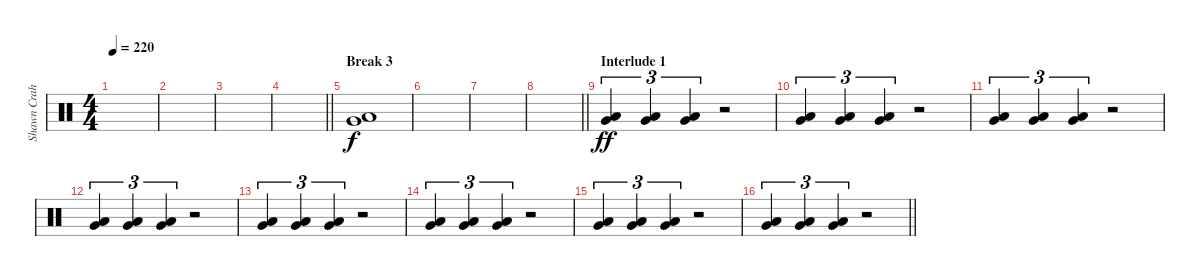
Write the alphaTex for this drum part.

\track ("Shawn Crahan" "Shawn Crah") {instrument percussion}
\staff {score}
\articulation defaults
\ts (4 4)
\tempo 220
\clef neutral
\ks c
|
|
|
\barLineRight lightlight
|
\section ("" "Break 3")
("Very Low Tom (hit)" "Low Floor Tom (hit)").1 |
|
|
\barLineRight lightlight
|
\section ("" "Interlude 1")
("Very Low Tom (hit)" "Low Floor Tom (hit)").4{tu (3 2) dy ff} ("Very Low Tom (hit)" "Low Floor Tom (hit)").4{tu (3 2)} ("Very Low Tom (hit)" "Low Floor Tom (hit)").4{tu (3 2)} r.2 |
("Very Low Tom (hit)" "Low Floor Tom (hit)").4{tu (3 2)} ("Very Low Tom (hit)" "Low Floor Tom (hit)").4{tu (3 2)} ("Very Low Tom (hit)" "Low Floor Tom (hit)").4{tu (3 2)} r.2 |
("Very Low Tom (hit)" "Low Floor Tom (hit)").4{tu (3 2)} ("Very Low Tom (hit)" "Low Floor Tom (hit)").4{tu (3 2)} ("Very Low Tom (hit)" "Low Floor Tom (hit)").4{tu (3 2)} r.2 |
("Very Low Tom (hit)" "Low Floor Tom (hit)").4{tu (3 2)} ("Very Low Tom (hit)" "Low Floor Tom (hit)").4{tu (3 2)} ("Very Low Tom (hit)" "Low Floor Tom (hit)").4{tu (3 2)} r.2 |
("Very Low Tom (hit)" "Low Floor Tom (hit)").4{tu (3 2)} ("Very Low Tom (hit)" "Low Floor Tom (hit)").4{tu (3 2)} ("Very Low Tom (hit)" "Low Floor Tom (hit)").4{tu (3 2)} r.2 |
("Very Low Tom (hit)" "Low Floor Tom (hit)").4{tu (3 2)} ("Very Low Tom (hit)" "Low Floor Tom (hit)").4{tu (3 2)} ("Very Low Tom (hit)" "Low Floor Tom (hit)").4{tu (3 2)} r.2 |
("Very Low Tom (hit)" "Low Floor Tom (hit)").4{tu (3 2)} ("Very Low Tom (hit)" "Low Floor Tom (hit)").4{tu (3 2)} ("Very Low Tom (hit)" "Low Floor Tom (hit)").4{tu (3 2)} r.2 |
\barLineRight lightlight
("Very Low Tom (hit)" "Low Floor Tom (hit)").4{tu (3 2)} ("Very Low Tom (hit)" "Low Floor Tom (hit)").4{tu (3 2)} ("Very Low Tom (hit)" "Low Floor Tom (hit)").4{tu (3 2)} r.2
